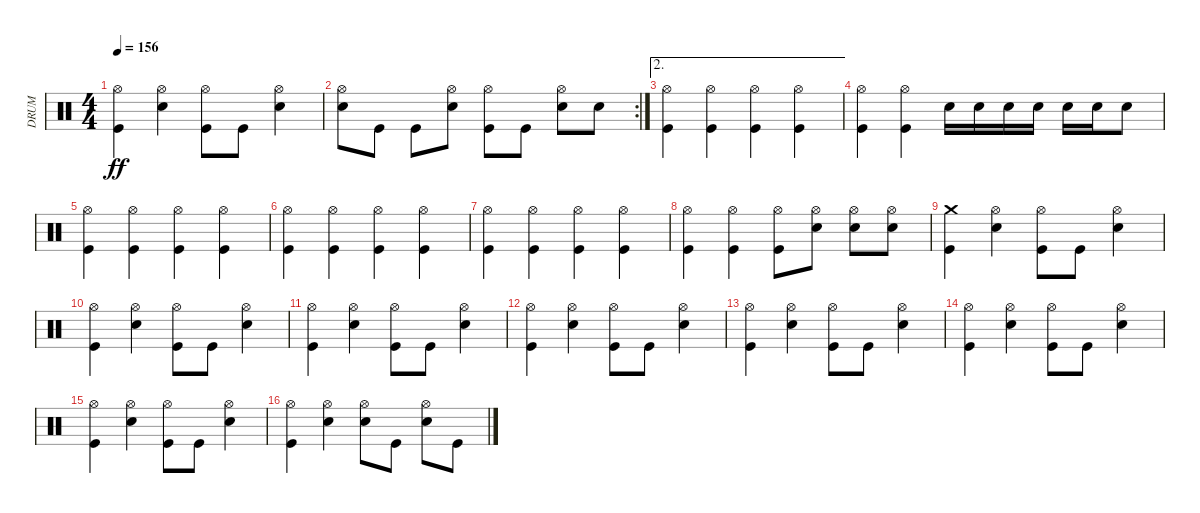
\track ("DRUM" "DRUM") {instrument percussion}
\staff {score}
\articulation defaults
\ts (4 4)
\tempo 156
\clef neutral
\ks c
("Hi-Hat (open)" "Kick (hit)").4{dy ff} ("Hi-Hat (open)" "Snare (hit) 2").4 ("Hi-Hat (open)" "Kick (hit)").8 "Kick (hit)".8 ("Hi-Hat (open)" "Snare (hit) 2").4 |
\rc 2
("Hi-Hat (open)" "Snare (hit) 2").8 "Kick (hit)".8 "Kick (hit)".8 ("Hi-Hat (open)" "Snare (hit) 2").8 ("Hi-Hat (open)" "Kick (hit)").8 "Kick (hit)".8 ("Hi-Hat (open)" "Snare (hit) 2").8 "Snare (hit) 2".8 |
\ae 2
("Hi-Hat (open)" "Kick (hit)").4 ("Hi-Hat (open)" "Kick (hit)").4 ("Hi-Hat (open)" "Kick (hit)").4 ("Hi-Hat (open)" "Kick (hit)").4 |
("Hi-Hat (open)" "Kick (hit)").4 ("Hi-Hat (open)" "Kick (hit)").4 "Snare (hit) 2".16 "Snare (hit) 2".16 "Snare (hit) 2".16 "Snare (hit) 2".16 "Snare (hit) 2".16 "Snare (hit) 2".16 "Snare (hit) 2".8 |
("Hi-Hat (open)" "Kick (hit)").4 ("Hi-Hat (open)" "Kick (hit)").4 ("Hi-Hat (open)" "Kick (hit)").4 ("Hi-Hat (open)" "Kick (hit)").4 |
("Hi-Hat (open)" "Kick (hit)").4 ("Hi-Hat (open)" "Kick (hit)").4 ("Hi-Hat (open)" "Kick (hit)").4 ("Hi-Hat (open)" "Kick (hit)").4 |
("Hi-Hat (open)" "Kick (hit)").4 ("Hi-Hat (open)" "Kick (hit)").4 ("Hi-Hat (open)" "Kick (hit)").4 ("Hi-Hat (open)" "Kick (hit)").4 |
("Hi-Hat (open)" "Kick (hit)").4 ("Hi-Hat (open)" "Kick (hit)").4 ("Hi-Hat (open)" "Kick (hit)").8 ("Hi-Hat (open)" "Snare (hit) 2").8 ("Hi-Hat (open)" "Snare (hit) 2").8 ("Hi-Hat (open)" "Snare (hit) 2").8 |
("Crash medium (hit)" "Kick (hit)").4 ("Hi-Hat (open)" "Snare (hit) 2").4 ("Hi-Hat (open)" "Kick (hit)").8 "Kick (hit)".8 ("Hi-Hat (open)" "Snare (hit) 2").4 |
("Hi-Hat (open)" "Kick (hit)").4 ("Hi-Hat (open)" "Snare (hit) 2").4 ("Hi-Hat (open)" "Kick (hit)").8 "Kick (hit)".8 ("Hi-Hat (open)" "Snare (hit) 2").4 |
("Hi-Hat (open)" "Kick (hit)").4 ("Hi-Hat (open)" "Snare (hit) 2").4 ("Hi-Hat (open)" "Kick (hit)").8 "Kick (hit)".8 ("Hi-Hat (open)" "Snare (hit) 2").4 |
("Hi-Hat (open)" "Kick (hit)").4 ("Hi-Hat (open)" "Snare (hit) 2").4 ("Hi-Hat (open)" "Kick (hit)").8 "Kick (hit)".8 ("Hi-Hat (open)" "Snare (hit) 2").4 |
("Hi-Hat (open)" "Kick (hit)").4 ("Hi-Hat (open)" "Snare (hit) 2").4 ("Hi-Hat (open)" "Kick (hit)").8 "Kick (hit)".8 ("Hi-Hat (open)" "Snare (hit) 2").4 |
("Hi-Hat (open)" "Kick (hit)").4 ("Hi-Hat (open)" "Snare (hit) 2").4 ("Hi-Hat (open)" "Kick (hit)").8 "Kick (hit)".8 ("Hi-Hat (open)" "Snare (hit) 2").4 |
("Hi-Hat (open)" "Kick (hit)").4 ("Hi-Hat (open)" "Snare (hit) 2").4 ("Hi-Hat (open)" "Kick (hit)").8 "Kick (hit)".8 ("Hi-Hat (open)" "Snare (hit) 2").4 |
("Hi-Hat (open)" "Kick (hit)").4 ("Hi-Hat (open)" "Snare (hit) 2").4 ("Hi-Hat (open)" "Snare (hit) 2").8 "Kick (hit)".8 ("Hi-Hat (open)" "Snare (hit) 2").8 "Kick (hit)".8
